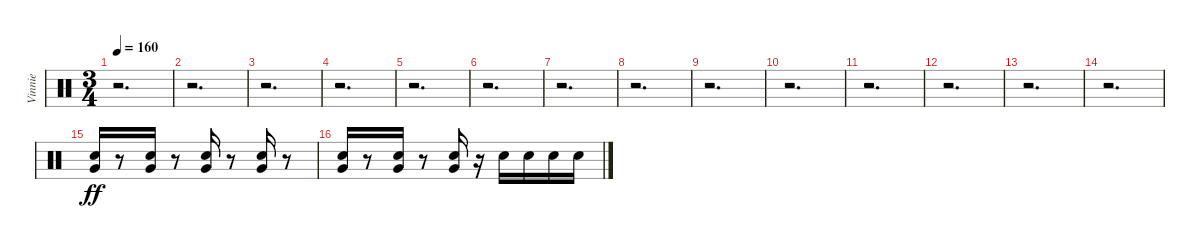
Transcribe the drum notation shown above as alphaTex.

\track ("Vinnie" "Vinnie") {instrument percussion}
\staff {score}
\articulation defaults
\ts (3 4)
\tempo 160
\clef neutral
\ks c
r.2{d dy ff} |
r.2{d} |
r.2{d} |
r.2{d} |
r.2{d} |
r.2{d} |
r.2{d} |
r.2{d} |
r.2{d} |
r.2{d} |
r.2{d} |
r.2{d} |
r.2{d} |
r.2{d} |
("Electric Snare (hit)" "Very Low Tom (hit)").16 r.8 ("Electric Snare (hit)" "Very Low Tom (hit)").16 r.8 ("Electric Snare (hit)" "Very Low Tom (hit)").16 r.8 ("Electric Snare (hit)" "Very Low Tom (hit)").16 r.8 |
("Electric Snare (hit)" "Very Low Tom (hit)").16 r.8 ("Electric Snare (hit)" "Very Low Tom (hit)").16 r.8 ("Electric Snare (hit)" "Very Low Tom (hit)").16 r.16 "Electric Snare (hit)".16 "Electric Snare (hit)".16 "Electric Snare (hit)".16 "Electric Snare (hit)".16
